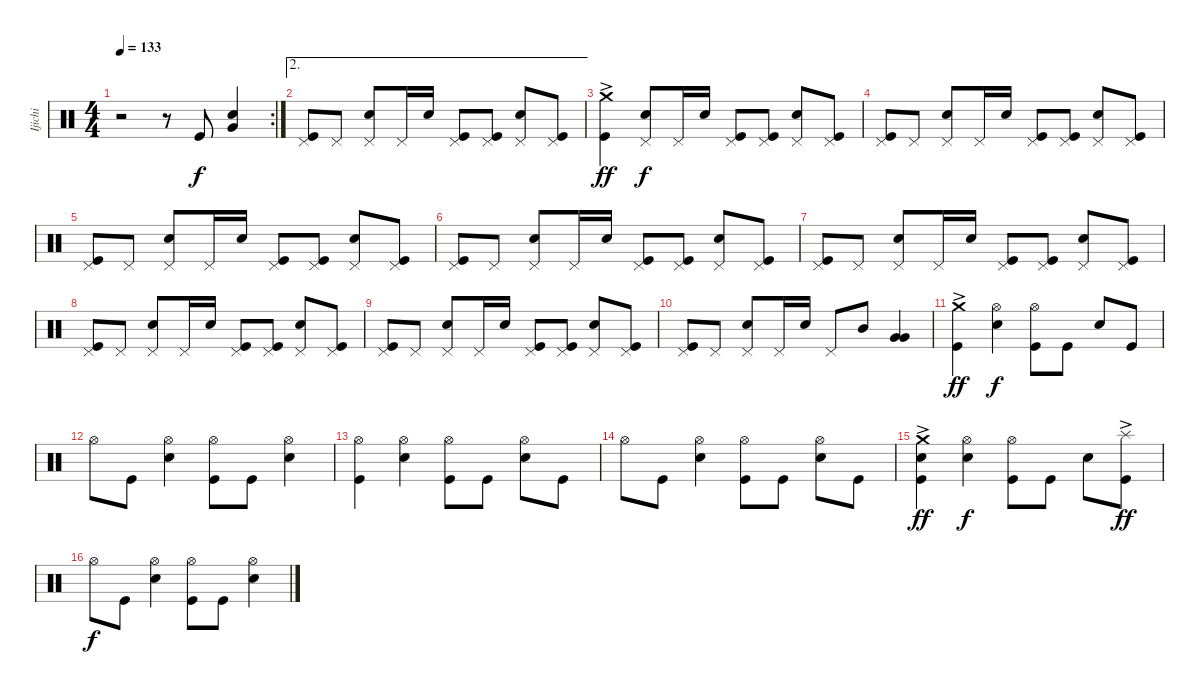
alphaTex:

\track ("Ijichi" "Ijichi") {instrument percussion}
\staff {score}
\articulation defaults
\rc 2
\ts (4 4)
\tempo 133
\clef neutral
\ks c
r.2{dy f} r.8 "Kick (hit)".8 ("Electric Snare (hit)" "Very Low Tom (hit)").4 |
\ae 2
("Pedal Hi-Hat (hit)" "Kick (hit)").8 "Pedal Hi-Hat (hit)".8 ("Pedal Hi-Hat (hit)" "Electric Snare (hit)").8 "Pedal Hi-Hat (hit)".16 "Electric Snare (hit)".16 ("Pedal Hi-Hat (hit)" "Kick (hit)").8 ("Pedal Hi-Hat (hit)" "Kick (hit)").8 ("Pedal Hi-Hat (hit)" "Electric Snare (hit)").8 ("Pedal Hi-Hat (hit)" "Kick (hit)").8 |
("Crash medium (hit)"{ac} "Kick (hit)").4{dy ff} ("Pedal Hi-Hat (hit)" "Electric Snare (hit)").8{dy f} "Pedal Hi-Hat (hit)".16 "Electric Snare (hit)".16 ("Pedal Hi-Hat (hit)" "Kick (hit)").8 ("Pedal Hi-Hat (hit)" "Kick (hit)").8 ("Pedal Hi-Hat (hit)" "Electric Snare (hit)").8 ("Pedal Hi-Hat (hit)" "Kick (hit)").8 |
("Pedal Hi-Hat (hit)" "Kick (hit)").8 "Pedal Hi-Hat (hit)".8 ("Pedal Hi-Hat (hit)" "Electric Snare (hit)").8 "Pedal Hi-Hat (hit)".16 "Electric Snare (hit)".16 ("Pedal Hi-Hat (hit)" "Kick (hit)").8 ("Pedal Hi-Hat (hit)" "Kick (hit)").8 ("Pedal Hi-Hat (hit)" "Electric Snare (hit)").8 ("Pedal Hi-Hat (hit)" "Kick (hit)").8 |
("Pedal Hi-Hat (hit)" "Kick (hit)").8 "Pedal Hi-Hat (hit)".8 ("Pedal Hi-Hat (hit)" "Electric Snare (hit)").8 "Pedal Hi-Hat (hit)".16 "Electric Snare (hit)".16 ("Pedal Hi-Hat (hit)" "Kick (hit)").8 ("Pedal Hi-Hat (hit)" "Kick (hit)").8 ("Pedal Hi-Hat (hit)" "Electric Snare (hit)").8 ("Pedal Hi-Hat (hit)" "Kick (hit)").8 |
("Pedal Hi-Hat (hit)" "Kick (hit)").8 "Pedal Hi-Hat (hit)".8 ("Pedal Hi-Hat (hit)" "Electric Snare (hit)").8 "Pedal Hi-Hat (hit)".16 "Electric Snare (hit)".16 ("Pedal Hi-Hat (hit)" "Kick (hit)").8 ("Pedal Hi-Hat (hit)" "Kick (hit)").8 ("Pedal Hi-Hat (hit)" "Electric Snare (hit)").8 ("Pedal Hi-Hat (hit)" "Kick (hit)").8 |
("Pedal Hi-Hat (hit)" "Kick (hit)").8 "Pedal Hi-Hat (hit)".8 ("Pedal Hi-Hat (hit)" "Electric Snare (hit)").8 "Pedal Hi-Hat (hit)".16 "Electric Snare (hit)".16 ("Pedal Hi-Hat (hit)" "Kick (hit)").8 ("Pedal Hi-Hat (hit)" "Kick (hit)").8 ("Pedal Hi-Hat (hit)" "Electric Snare (hit)").8 ("Pedal Hi-Hat (hit)" "Kick (hit)").8 |
("Pedal Hi-Hat (hit)" "Kick (hit)").8 "Pedal Hi-Hat (hit)".8 ("Pedal Hi-Hat (hit)" "Electric Snare (hit)").8 "Pedal Hi-Hat (hit)".16 "Electric Snare (hit)".16 ("Pedal Hi-Hat (hit)" "Kick (hit)").8 ("Pedal Hi-Hat (hit)" "Kick (hit)").8 ("Pedal Hi-Hat (hit)" "Electric Snare (hit)").8 ("Pedal Hi-Hat (hit)" "Kick (hit)").8 |
("Pedal Hi-Hat (hit)" "Kick (hit)").8 "Pedal Hi-Hat (hit)".8 ("Pedal Hi-Hat (hit)" "Electric Snare (hit)").8 "Pedal Hi-Hat (hit)".16 "Electric Snare (hit)".16 ("Pedal Hi-Hat (hit)" "Kick (hit)").8 ("Pedal Hi-Hat (hit)" "Kick (hit)").8 ("Pedal Hi-Hat (hit)" "Electric Snare (hit)").8 ("Pedal Hi-Hat (hit)" "Kick (hit)").8 |
("Pedal Hi-Hat (hit)" "Kick (hit)").8 "Pedal Hi-Hat (hit)".8 ("Pedal Hi-Hat (hit)" "Electric Snare (hit)").8 "Pedal Hi-Hat (hit)".16 "Electric Snare (hit)".16 "Pedal Hi-Hat (hit)".8 "Mid Tom (hit)".8 ("Very Low Tom (hit)" "Very Low Tom (hit)").4 |
("Crash medium (hit)"{ac} "Kick (hit)").4{dy ff} ("Hi-Hat (open)" "Electric Snare (hit)").4{dy f} ("Hi-Hat (open)" "Kick (hit)").8 "Kick (hit)".8 "Electric Snare (hit)".8 "Kick (hit)".8 |
"Hi-Hat (open)".8 "Kick (hit)".8 ("Hi-Hat (open)" "Electric Snare (hit)").4 ("Hi-Hat (open)" "Kick (hit)").8 "Kick (hit)".8 ("Hi-Hat (open)" "Electric Snare (hit)").4 |
("Hi-Hat (open)" "Kick (hit)").4 ("Hi-Hat (open)" "Electric Snare (hit)").4 ("Hi-Hat (open)" "Kick (hit)").8 "Kick (hit)".8 ("Hi-Hat (open)" "Electric Snare (hit)").8 "Kick (hit)".8 |
"Hi-Hat (open)".8 "Kick (hit)".8 ("Hi-Hat (open)" "Electric Snare (hit)").4 ("Hi-Hat (open)" "Kick (hit)").8 "Kick (hit)".8 ("Hi-Hat (open)" "Electric Snare (hit)").8 "Kick (hit)".8 |
("Crash medium (hit)"{ac} "Electric Snare (hit)" "Kick (hit)").4{dy ff} ("Hi-Hat (open)" "Electric Snare (hit)").4{dy f} ("Hi-Hat (open)" "Kick (hit)").8 "Kick (hit)".8 "Electric Snare (hit)".8 ("Splash (hit)"{ac} "Kick (hit)").8{dy ff} |
"Hi-Hat (open)".8{dy f} "Kick (hit)".8 ("Hi-Hat (open)" "Electric Snare (hit)").4 ("Hi-Hat (open)" "Kick (hit)").8 "Kick (hit)".8 ("Hi-Hat (open)" "Electric Snare (hit)").4
